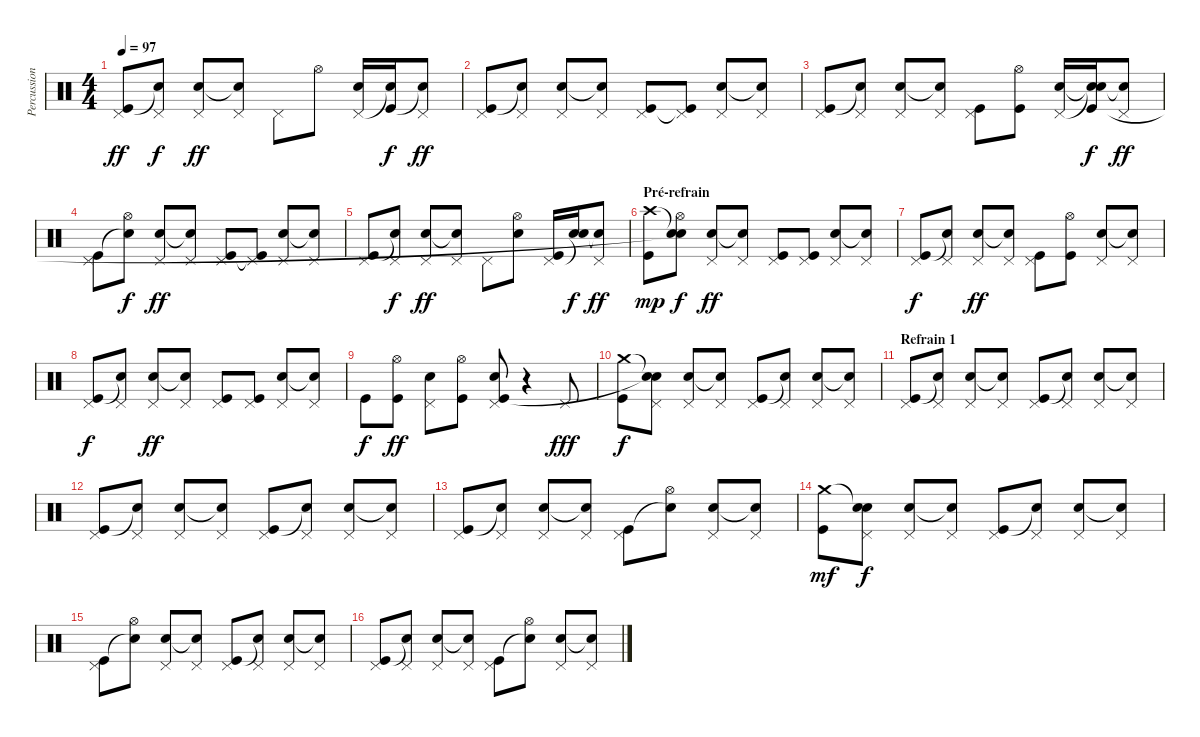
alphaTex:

\track ("Percussions" "Percussion") {instrument percussion}
\staff {score}
\articulation defaults
\ts (4 4)
\tempo 97
\clef neutral
\ks c
("Pedal Hi-Hat (hit)" "Kick (hit)").8{dy ff} ("Pedal Hi-Hat (hit)" "Snare (hit)"{t}).8{dy f} ("Pedal Hi-Hat (hit)" "Snare (hit) 2").8{dy ff} ("Pedal Hi-Hat (hit)" "Snare (hit)"{t}).8 "Pedal Hi-Hat (hit)".8 "Hi-Hat (open)".8 ("Pedal Hi-Hat (hit)" "Snare (hit) 2").16 ("Snare (hit)"{t} "Kick (hit)").16{dy f} ("Pedal Hi-Hat (hit)" "Snare (hit)"{t}).8{dy ff} |
("Pedal Hi-Hat (hit)" "Kick (hit)").8 ("Pedal Hi-Hat (hit)" "Snare (hit)"{t}).8 ("Pedal Hi-Hat (hit)" "Snare (hit) 2").8 ("Pedal Hi-Hat (hit)" "Snare (hit)"{t}).8 ("Pedal Hi-Hat (hit)" "Kick (hit)").8 ("Pedal Hi-Hat (hit)" "Kick (hit)"{t}).8 ("Pedal Hi-Hat (hit)" "Snare (hit) 2").8 ("Pedal Hi-Hat (hit)" "Snare (hit)"{t}).8 |
("Pedal Hi-Hat (hit)" "Kick (hit)").8 ("Pedal Hi-Hat (hit)" "Snare (hit)"{t}).8 ("Pedal Hi-Hat (hit)" "Snare (hit) 2").8 ("Pedal Hi-Hat (hit)" "Snare (hit)"{t}).8 ("Pedal Hi-Hat (hit)" "Kick (hit)").8 ("Hi-Hat (open)" "Kick (hit)").8 ("Pedal Hi-Hat (hit)" "Snare (hit) 2").16 ("Snare (hit)"{t} "Snare (hit)"{t} "Kick (hit)").16{dy f} ("Pedal Hi-Hat (hit)" "Snare (hit)"{t}).8{dy ff} |
("Pedal Hi-Hat (hit)" "Kick (hit)").8 ("Hi-Hat (open)" "Snare (hit)"{t}).8{dy f} ("Pedal Hi-Hat (hit)" "Snare (hit) 2").8{dy ff} ("Pedal Hi-Hat (hit)" "Snare (hit)"{t}).8 ("Pedal Hi-Hat (hit)" "Kick (hit)").8 ("Pedal Hi-Hat (hit)" "Kick (hit)"{t}).8 ("Pedal Hi-Hat (hit)" "Snare (hit) 2").8 ("Pedal Hi-Hat (hit)" "Snare (hit)"{t}).8 |
("Pedal Hi-Hat (hit)" "Kick (hit)").8 ("Pedal Hi-Hat (hit)" "Snare (hit)"{t}).8{dy f} ("Pedal Hi-Hat (hit)" "Snare (hit) 2").8{dy ff} ("Pedal Hi-Hat (hit)" "Snare (hit)"{t}).8 "Pedal Hi-Hat (hit)".8 ("Hi-Hat (open)" "Snare (hit) 2").8 ("Pedal Hi-Hat (hit)" "Kick (hit)").16 ("Snare (hit)"{t} "Snare (hit) 2").16{dy f} ("Pedal Hi-Hat (hit)" "Snare (hit)"{t}).8{dy ff} |
\section ("" "Pré-refrain")
("Crash high (hit)" "Kick (hit)").8{dy mp} ("Snare (hit)"{t} "Hi-Hat (open)" "Snare (hit)"{t}).8{dy f} ("Pedal Hi-Hat (hit)" "Snare (hit) 2").8{dy ff} ("Pedal Hi-Hat (hit)" "Snare (hit)"{t}).8 ("Pedal Hi-Hat (hit)" "Kick (hit)").8 ("Pedal Hi-Hat (hit)" "Kick (hit)").8 ("Pedal Hi-Hat (hit)" "Snare (hit) 2").8 ("Pedal Hi-Hat (hit)" "Snare (hit)"{t}).8 |
("Pedal Hi-Hat (hit)" "Kick (hit)").8{dy f} ("Pedal Hi-Hat (hit)" "Snare (hit)"{t}).8 ("Pedal Hi-Hat (hit)" "Snare (hit) 2").8{dy ff} ("Pedal Hi-Hat (hit)" "Snare (hit)"{t}).8 ("Pedal Hi-Hat (hit)" "Kick (hit)").8 ("Hi-Hat (open)" "Kick (hit)").8 ("Pedal Hi-Hat (hit)" "Snare (hit) 2").8 ("Pedal Hi-Hat (hit)" "Snare (hit)"{t}).8 |
("Pedal Hi-Hat (hit)" "Kick (hit)").8{dy f} ("Pedal Hi-Hat (hit)" "Snare (hit)"{t}).8 ("Pedal Hi-Hat (hit)" "Snare (hit) 2").8{dy ff} ("Pedal Hi-Hat (hit)" "Snare (hit)"{t}).8 ("Pedal Hi-Hat (hit)" "Kick (hit)").8 ("Pedal Hi-Hat (hit)" "Kick (hit)").8 ("Pedal Hi-Hat (hit)" "Snare (hit) 2").8 ("Pedal Hi-Hat (hit)" "Snare (hit)"{t}).8 |
"Kick (hit)".8{dy f} ("Hi-Hat (open)" "Kick (hit)").8{dy ff} ("Pedal Hi-Hat (hit)" "Snare (hit) 2").8 ("Hi-Hat (open)" "Kick (hit)").8 ("Pedal Hi-Hat (hit)" "Snare (hit) 2" "Kick (hit)").8 r.4 "Pedal Hi-Hat (hit)".8{dy fff} |
("Crash medium (hit)" "Kick (hit)").8{dy f} ("Snare (hit)"{t} "Pedal Hi-Hat (hit)" "Snare (hit)"{t}).8 ("Pedal Hi-Hat (hit)" "Snare (hit) 2").8 ("Pedal Hi-Hat (hit)" "Snare (hit)"{t}).8 ("Pedal Hi-Hat (hit)" "Kick (hit)").8 ("Pedal Hi-Hat (hit)" "Snare (hit)"{t}).8 ("Pedal Hi-Hat (hit)" "Snare (hit) 2").8 ("Pedal Hi-Hat (hit)" "Snare (hit)"{t}).8 |
\section ("" "Refrain 1")
("Pedal Hi-Hat (hit)" "Kick (hit)").8 ("Pedal Hi-Hat (hit)" "Snare (hit)"{t}).8 ("Pedal Hi-Hat (hit)" "Snare (hit) 2").8 ("Pedal Hi-Hat (hit)" "Snare (hit)"{t}).8 ("Pedal Hi-Hat (hit)" "Kick (hit)").8 ("Pedal Hi-Hat (hit)" "Snare (hit)"{t}).8 ("Pedal Hi-Hat (hit)" "Snare (hit) 2").8 ("Pedal Hi-Hat (hit)" "Snare (hit)"{t}).8 |
("Pedal Hi-Hat (hit)" "Kick (hit)").8 ("Pedal Hi-Hat (hit)" "Snare (hit)"{t}).8 ("Pedal Hi-Hat (hit)" "Snare (hit) 2").8 ("Pedal Hi-Hat (hit)" "Snare (hit)"{t}).8 ("Pedal Hi-Hat (hit)" "Kick (hit)").8 ("Pedal Hi-Hat (hit)" "Snare (hit)"{t}).8 ("Pedal Hi-Hat (hit)" "Snare (hit) 2").8 ("Pedal Hi-Hat (hit)" "Snare (hit)"{t}).8 |
("Pedal Hi-Hat (hit)" "Kick (hit)").8 ("Pedal Hi-Hat (hit)" "Snare (hit)"{t}).8 ("Pedal Hi-Hat (hit)" "Snare (hit) 2").8 ("Pedal Hi-Hat (hit)" "Snare (hit)"{t}).8 ("Pedal Hi-Hat (hit)" "Kick (hit)").8 ("Hi-Hat (open)" "Snare (hit)"{t}).8 ("Pedal Hi-Hat (hit)" "Snare (hit) 2").8 ("Pedal Hi-Hat (hit)" "Snare (hit)"{t}).8 |
("Crash medium (hit)" "Kick (hit)").8{dy mf} ("Snare (hit)"{t} "Pedal Hi-Hat (hit)" "Snare (hit)").8{dy f} ("Pedal Hi-Hat (hit)" "Snare (hit) 2").8 ("Pedal Hi-Hat (hit)" "Snare (hit)"{t}).8 ("Pedal Hi-Hat (hit)" "Kick (hit)").8 ("Pedal Hi-Hat (hit)" "Snare (hit)"{t}).8 ("Pedal Hi-Hat (hit)" "Snare (hit) 2").8 ("Pedal Hi-Hat (hit)" "Snare (hit)"{t}).8 |
("Pedal Hi-Hat (hit)" "Kick (hit)").8 ("Hi-Hat (open)" "Snare (hit)"{t}).8 ("Pedal Hi-Hat (hit)" "Snare (hit) 2").8 ("Pedal Hi-Hat (hit)" "Snare (hit)"{t}).8 ("Pedal Hi-Hat (hit)" "Kick (hit)").8 ("Pedal Hi-Hat (hit)" "Snare (hit)"{t}).8 ("Pedal Hi-Hat (hit)" "Snare (hit) 2").8 ("Pedal Hi-Hat (hit)" "Snare (hit)"{t}).8 |
("Pedal Hi-Hat (hit)" "Kick (hit)").8 ("Pedal Hi-Hat (hit)" "Snare (hit)"{t}).8 ("Pedal Hi-Hat (hit)" "Snare (hit) 2").8 ("Pedal Hi-Hat (hit)" "Snare (hit)"{t}).8 ("Pedal Hi-Hat (hit)" "Kick (hit)").8 ("Hi-Hat (open)" "Snare (hit)"{t}).8 ("Pedal Hi-Hat (hit)" "Snare (hit) 2").8 ("Pedal Hi-Hat (hit)" "Snare (hit)"{t}).8
